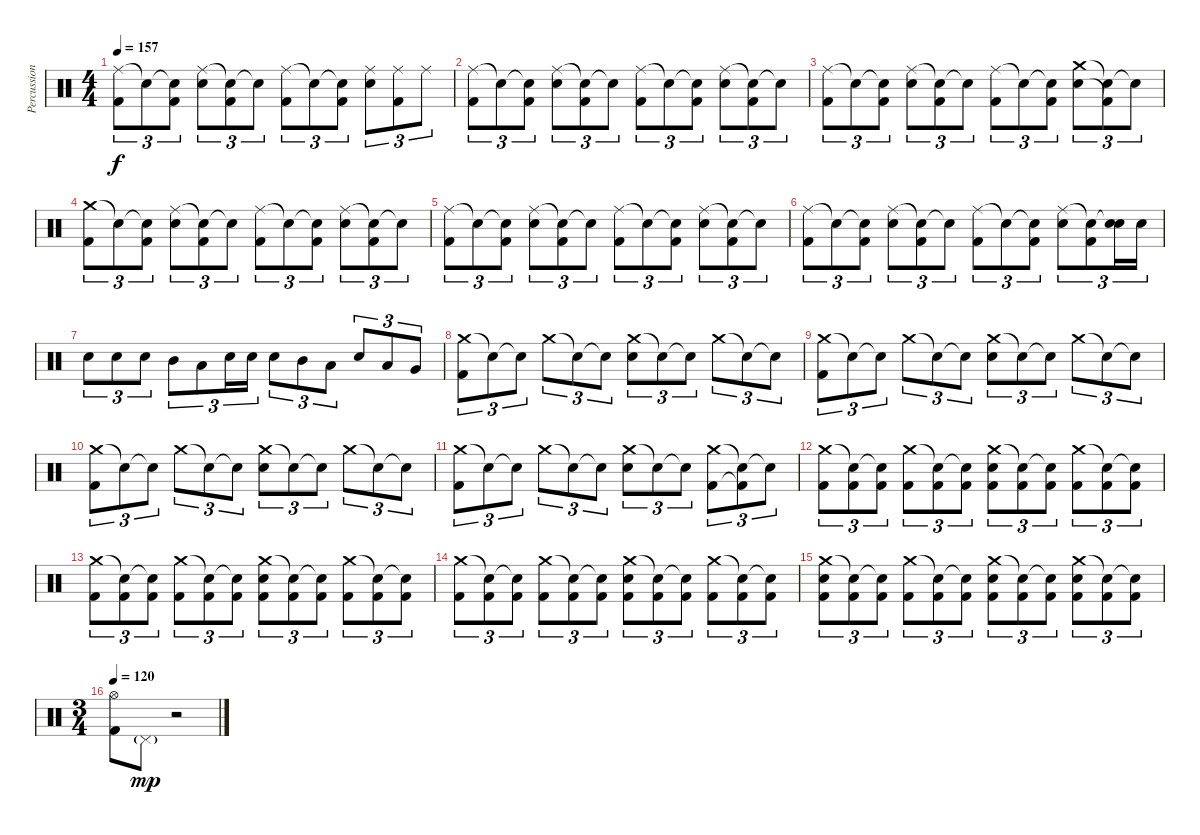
\track ("Percussions" "Percussion") {instrument percussion}
\staff {score}
\articulation defaults
\ts (4 4)
\tempo 157
\clef neutral
\ks c
("Ride (middle)" "Kick (hit) 2").8{tu (3 2) dy f} "Snare (hit)"{t}.8{tu (3 2)} ("Snare (hit)"{t} "Kick (hit) 2").8{tu (3 2)} ("Ride (middle)" "Electric Snare (hit)").8{tu (3 2)} ("Snare (hit)"{t} "Kick (hit) 2").8{tu (3 2)} "Snare (hit)"{t}.8{tu (3 2)} ("Ride (middle)" "Kick (hit) 2").8{tu (3 2)} "Snare (hit)"{t}.8{tu (3 2)} ("Snare (hit)"{t} "Kick (hit) 2").8{tu (3 2)} ("Ride (middle)" "Electric Snare (hit)").8{tu (3 2)} ("Ride (middle)" "Kick (hit) 2").8{tu (3 2)} "Ride (middle)".8{tu (3 2)} |
("Ride (middle)" "Kick (hit) 2").8{tu (3 2)} "Snare (hit)"{t}.8{tu (3 2)} ("Snare (hit)"{t} "Kick (hit) 2").8{tu (3 2)} ("Ride (middle)" "Electric Snare (hit)").8{tu (3 2)} ("Snare (hit)"{t} "Kick (hit) 2").8{tu (3 2)} "Snare (hit)"{t}.8{tu (3 2)} ("Ride (middle)" "Kick (hit) 2").8{tu (3 2)} "Snare (hit)"{t}.8{tu (3 2)} ("Snare (hit)"{t} "Kick (hit) 2").8{tu (3 2)} ("Ride (middle)" "Electric Snare (hit)").8{tu (3 2)} ("Snare (hit)"{t} "Kick (hit) 2").8{tu (3 2)} "Snare (hit)"{t}.8{tu (3 2)} |
("Ride (middle)" "Kick (hit) 2").8{tu (3 2)} "Snare (hit)"{t}.8{tu (3 2)} ("Snare (hit)"{t} "Kick (hit) 2").8{tu (3 2)} ("Ride (middle)" "Electric Snare (hit)").8{tu (3 2)} ("Snare (hit)"{t} "Kick (hit) 2").8{tu (3 2)} "Snare (hit)"{t}.8{tu (3 2)} ("Ride (middle)" "Kick (hit) 2").8{tu (3 2)} "Snare (hit)"{t}.8{tu (3 2)} ("Snare (hit)"{t} "Kick (hit) 2").8{tu (3 2)} ("Crash medium (hit)" "Electric Snare (hit)").8{tu (3 2)} ("Snare (hit)"{t} "Kick (hit) 2"{t}).8{tu (3 2)} "Snare (hit)"{t}.8{tu (3 2)} |
("Crash medium (hit)" "Kick (hit) 2").8{tu (3 2)} "Snare (hit)"{t}.8{tu (3 2)} ("Snare (hit)"{t} "Kick (hit) 2").8{tu (3 2)} ("Ride (middle)" "Electric Snare (hit)").8{tu (3 2)} ("Snare (hit)"{t} "Kick (hit) 2").8{tu (3 2)} "Snare (hit)"{t}.8{tu (3 2)} ("Ride (middle)" "Kick (hit) 2").8{tu (3 2)} "Snare (hit)"{t}.8{tu (3 2)} ("Snare (hit)"{t} "Kick (hit) 2").8{tu (3 2)} ("Ride (middle)" "Electric Snare (hit)").8{tu (3 2)} ("Snare (hit)"{t} "Kick (hit) 2").8{tu (3 2)} "Snare (hit)"{t}.8{tu (3 2)} |
("Ride (middle)" "Kick (hit) 2").8{tu (3 2)} "Snare (hit)"{t}.8{tu (3 2)} ("Snare (hit)"{t} "Kick (hit) 2").8{tu (3 2)} ("Ride (middle)" "Electric Snare (hit)").8{tu (3 2)} ("Snare (hit)"{t} "Kick (hit) 2").8{tu (3 2)} "Snare (hit)"{t}.8{tu (3 2)} ("Ride (middle)" "Kick (hit) 2").8{tu (3 2)} "Snare (hit)"{t}.8{tu (3 2)} ("Snare (hit)"{t} "Kick (hit) 2").8{tu (3 2)} ("Ride (middle)" "Electric Snare (hit)").8{tu (3 2)} ("Snare (hit)"{t} "Kick (hit) 2").8{tu (3 2)} "Snare (hit)"{t}.8{tu (3 2)} |
("Ride (middle)" "Kick (hit) 2").8{tu (3 2)} "Snare (hit)"{t}.8{tu (3 2)} ("Snare (hit)"{t} "Kick (hit) 2").8{tu (3 2)} ("Ride (middle)" "Electric Snare (hit)").8{tu (3 2)} ("Snare (hit)"{t} "Kick (hit) 2").8{tu (3 2)} "Snare (hit)"{t}.8{tu (3 2)} ("Ride (middle)" "Kick (hit) 2").8{tu (3 2)} "Snare (hit)"{t}.8{tu (3 2)} ("Snare (hit)"{t} "Kick (hit) 2").8{tu (3 2)} ("Ride (middle)" "Electric Snare (hit)").8{tu (3 2)} ("Snare (hit)"{t} "Kick (hit) 2").8{tu (3 2)} ("Snare (hit)"{t} "Electric Snare (hit)").16{tu (3 2)} "Electric Snare (hit)".16{tu (3 2)} |
"Electric Snare (hit)".8{tu (3 2)} "Electric Snare (hit)".8{tu (3 2)} "Electric Snare (hit)".8{tu (3 2)} "Mid Tom (hit)".8{tu (3 2)} "Low Tom (hit)".8{tu (3 2)} "Electric Snare (hit)".16{tu (3 2)} "Electric Snare (hit)".16{tu (3 2)} "Electric Snare (hit)".8{tu (3 2)} "Mid Tom (hit)".8{tu (3 2)} "Low Tom (hit)".8{tu (3 2)} "Electric Snare (hit)".8{tu (3 2)} "Low Tom (hit)".8{tu (3 2)} "Very Low Tom (hit)".8{tu (3 2)} |
("Crash medium (hit)" "Kick (hit) 2").8{tu (3 2)} "Snare (hit)"{t}.8{tu (3 2)} "Snare (hit)"{t}.8{tu (3 2)} "Crash medium (hit)".8{tu (3 2)} "Snare (hit)"{t}.8{tu (3 2)} "Snare (hit)"{t}.8{tu (3 2)} ("Crash medium (hit)" "Electric Snare (hit)").8{tu (3 2)} "Snare (hit)"{t}.8{tu (3 2)} "Snare (hit)"{t}.8{tu (3 2)} "Crash medium (hit)".8{tu (3 2)} "Snare (hit)"{t}.8{tu (3 2)} "Snare (hit)"{t}.8{tu (3 2)} |
("Crash medium (hit)" "Kick (hit) 2").8{tu (3 2)} "Snare (hit)"{t}.8{tu (3 2)} "Snare (hit)"{t}.8{tu (3 2)} "Crash medium (hit)".8{tu (3 2)} "Snare (hit)"{t}.8{tu (3 2)} "Snare (hit)"{t}.8{tu (3 2)} ("Crash medium (hit)" "Electric Snare (hit)").8{tu (3 2)} "Snare (hit)"{t}.8{tu (3 2)} "Snare (hit)"{t}.8{tu (3 2)} "Crash medium (hit)".8{tu (3 2)} "Snare (hit)"{t}.8{tu (3 2)} "Snare (hit)"{t}.8{tu (3 2)} |
("Crash medium (hit)" "Kick (hit) 2").8{tu (3 2)} "Snare (hit)"{t}.8{tu (3 2)} "Snare (hit)"{t}.8{tu (3 2)} "Crash medium (hit)".8{tu (3 2)} "Snare (hit)"{t}.8{tu (3 2)} "Snare (hit)"{t}.8{tu (3 2)} ("Crash medium (hit)" "Electric Snare (hit)").8{tu (3 2)} "Snare (hit)"{t}.8{tu (3 2)} "Snare (hit)"{t}.8{tu (3 2)} "Crash medium (hit)".8{tu (3 2)} "Snare (hit)"{t}.8{tu (3 2)} "Snare (hit)"{t}.8{tu (3 2)} |
("Crash medium (hit)" "Kick (hit) 2").8{tu (3 2)} "Snare (hit)"{t}.8{tu (3 2)} "Snare (hit)"{t}.8{tu (3 2)} "Crash medium (hit)".8{tu (3 2)} "Snare (hit)"{t}.8{tu (3 2)} "Snare (hit)"{t}.8{tu (3 2)} ("Crash medium (hit)" "Electric Snare (hit)").8{tu (3 2)} "Snare (hit)"{t}.8{tu (3 2)} "Snare (hit)"{t}.8{tu (3 2)} ("Crash medium (hit)" "Kick (hit) 2").8{tu (3 2)} ("Snare (hit)"{t} "Kick (hit) 2"{t}).8{tu (3 2)} "Snare (hit)"{t}.8{tu (3 2)} |
("Crash medium (hit)" "Kick (hit) 2").8{tu (3 2)} ("Snare (hit)"{t} "Kick (hit) 2").8{tu (3 2)} ("Snare (hit)"{t} "Kick (hit) 2").8{tu (3 2)} ("Crash medium (hit)" "Kick (hit) 2").8{tu (3 2)} ("Snare (hit)"{t} "Kick (hit) 2").8{tu (3 2)} ("Snare (hit)"{t} "Kick (hit) 2").8{tu (3 2)} ("Crash medium (hit)" "Electric Snare (hit)" "Kick (hit) 2").8{tu (3 2)} ("Snare (hit)"{t} "Kick (hit) 2").8{tu (3 2)} ("Snare (hit)"{t} "Kick (hit) 2").8{tu (3 2)} ("Crash medium (hit)" "Kick (hit) 2").8{tu (3 2)} ("Snare (hit)"{t} "Kick (hit) 2").8{tu (3 2)} ("Snare (hit)"{t} "Kick (hit) 2").8{tu (3 2)} |
("Crash medium (hit)" "Kick (hit) 2").8{tu (3 2)} ("Snare (hit)"{t} "Kick (hit) 2").8{tu (3 2)} ("Snare (hit)"{t} "Kick (hit) 2").8{tu (3 2)} ("Crash medium (hit)" "Kick (hit) 2").8{tu (3 2)} ("Snare (hit)"{t} "Kick (hit) 2").8{tu (3 2)} ("Snare (hit)"{t} "Kick (hit) 2").8{tu (3 2)} ("Crash medium (hit)" "Electric Snare (hit)" "Kick (hit) 2").8{tu (3 2)} ("Snare (hit)"{t} "Kick (hit) 2").8{tu (3 2)} ("Snare (hit)"{t} "Kick (hit) 2").8{tu (3 2)} ("Crash medium (hit)" "Kick (hit) 2").8{tu (3 2)} ("Snare (hit)"{t} "Kick (hit) 2").8{tu (3 2)} ("Snare (hit)"{t} "Kick (hit) 2").8{tu (3 2)} |
("Crash medium (hit)" "Kick (hit) 2").8{tu (3 2)} ("Snare (hit)"{t} "Kick (hit) 2").8{tu (3 2)} ("Snare (hit)"{t} "Kick (hit) 2").8{tu (3 2)} ("Crash medium (hit)" "Kick (hit) 2").8{tu (3 2)} ("Snare (hit)"{t} "Kick (hit) 2").8{tu (3 2)} ("Snare (hit)"{t} "Kick (hit) 2").8{tu (3 2)} ("Crash medium (hit)" "Electric Snare (hit)" "Kick (hit) 2").8{tu (3 2)} ("Snare (hit)"{t} "Kick (hit) 2").8{tu (3 2)} ("Snare (hit)"{t} "Kick (hit) 2").8{tu (3 2)} ("Crash medium (hit)" "Kick (hit) 2").8{tu (3 2)} ("Snare (hit)"{t} "Kick (hit) 2").8{tu (3 2)} ("Snare (hit)"{t} "Kick (hit) 2").8{tu (3 2)} |
("Crash medium (hit)" "Electric Snare (hit)" "Kick (hit) 2").8{tu (3 2)} ("Snare (hit)"{t} "Kick (hit) 2").8{tu (3 2)} ("Snare (hit)"{t} "Kick (hit) 2").8{tu (3 2)} ("Crash medium (hit)" "Kick (hit) 2").8{tu (3 2)} ("Snare (hit)"{t} "Kick (hit) 2").8{tu (3 2)} ("Snare (hit)"{t} "Kick (hit) 2").8{tu (3 2)} ("Crash medium (hit)" "Electric Snare (hit)" "Kick (hit) 2").8{tu (3 2)} ("Snare (hit)"{t} "Kick (hit) 2").8{tu (3 2)} ("Snare (hit)"{t} "Kick (hit) 2").8{tu (3 2)} ("Crash medium (hit)" "Electric Snare (hit)" "Kick (hit) 2").8{tu (3 2)} ("Snare (hit)"{t} "Kick (hit) 2").8{tu (3 2)} ("Snare (hit)"{t} "Kick (hit) 2").8{tu (3 2)} |
\ts (3 4)
\tempo 120
("Hi-Hat (open)" "Kick (hit) 2").8 "Pedal Hi-Hat (hit)"{g}.8{dy mp} r.2
